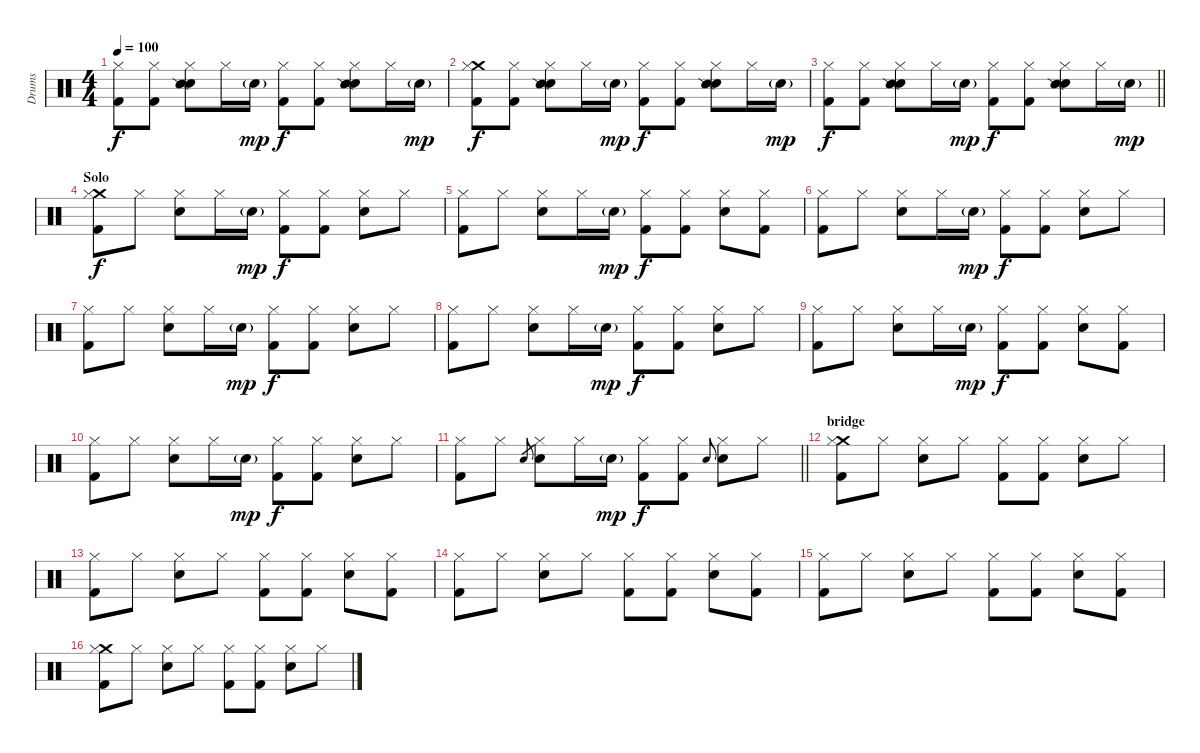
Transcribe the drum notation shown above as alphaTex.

\track ("Drums" "Drums") {instrument percussion}
\staff {score}
\articulation defaults
\ts (4 4)
\tempo 100
\clef neutral
\ks c
("Hi-Hat (closed)" "Kick (hit) 2").8{dy f} ("Hi-Hat (closed)" "Kick (hit) 2").8 ("Hi-Hat (closed)" "Electric Snare (hit)" "Snare (side stick) 2").8 "Hi-Hat (closed)".16 "Electric Snare (hit)"{g}.16{dy mp} ("Hi-Hat (closed)" "Kick (hit) 2").8{dy f} ("Hi-Hat (closed)" "Kick (hit) 2").8 ("Hi-Hat (closed)" "Electric Snare (hit)" "Snare (side stick) 2").8 "Hi-Hat (closed)".16 "Electric Snare (hit)"{g}.16{dy mp} |
("Crash medium (hit)" "Hi-Hat (closed)" "Kick (hit) 2").8{dy f} ("Hi-Hat (closed)" "Kick (hit) 2").8 ("Hi-Hat (closed)" "Electric Snare (hit)" "Snare (side stick) 2").8 "Hi-Hat (closed)".16 "Electric Snare (hit)"{g}.16{dy mp} ("Hi-Hat (closed)" "Kick (hit) 2").8{dy f} ("Hi-Hat (closed)" "Kick (hit) 2").8 ("Hi-Hat (closed)" "Electric Snare (hit)" "Snare (side stick) 2").8 "Hi-Hat (closed)".16 "Electric Snare (hit)"{g}.16{dy mp} |
\barLineRight lightlight
("Hi-Hat (closed)" "Kick (hit) 2").8{dy f} ("Hi-Hat (closed)" "Kick (hit) 2").8 ("Hi-Hat (closed)" "Electric Snare (hit)" "Snare (side stick) 2").8 "Hi-Hat (closed)".16 "Electric Snare (hit)"{g}.16{dy mp} ("Hi-Hat (closed)" "Kick (hit) 2").8{dy f} ("Hi-Hat (closed)" "Kick (hit) 2").8 ("Hi-Hat (closed)" "Electric Snare (hit)" "Snare (side stick) 2").8 "Hi-Hat (closed)".16 "Electric Snare (hit)"{g}.16{dy mp} |
\section ("" "Solo")
("Crash medium (hit)" "Kick (hit) 2" "Hi-Hat (closed)").8{dy f} "Hi-Hat (closed)".8 ("Electric Snare (hit)" "Hi-Hat (closed)").8 "Hi-Hat (closed)".16 "Electric Snare (hit)"{g}.16{dy mp} ("Kick (hit) 2" "Hi-Hat (closed)").8{dy f} ("Kick (hit) 2" "Hi-Hat (closed)").8 ("Electric Snare (hit)" "Hi-Hat (closed)").8 "Hi-Hat (closed)".8 |
("Kick (hit) 2" "Hi-Hat (closed)").8 "Hi-Hat (closed)".8 ("Electric Snare (hit)" "Hi-Hat (closed)").8 "Hi-Hat (closed)".16 "Electric Snare (hit)"{g}.16{dy mp} ("Kick (hit) 2" "Hi-Hat (closed)").8{dy f} ("Kick (hit) 2" "Hi-Hat (closed)").8 ("Electric Snare (hit)" "Hi-Hat (closed)").8 ("Kick (hit) 2" "Hi-Hat (closed)").8 |
("Kick (hit) 2" "Hi-Hat (closed)").8 "Hi-Hat (closed)".8 ("Electric Snare (hit)" "Hi-Hat (closed)").8 "Hi-Hat (closed)".16 "Electric Snare (hit)"{g}.16{dy mp} ("Kick (hit) 2" "Hi-Hat (closed)").8{dy f} ("Kick (hit) 2" "Hi-Hat (closed)").8 ("Electric Snare (hit)" "Hi-Hat (closed)").8 "Hi-Hat (closed)".8 |
("Kick (hit) 2" "Hi-Hat (closed)").8 "Hi-Hat (closed)".8 ("Electric Snare (hit)" "Hi-Hat (closed)").8 "Hi-Hat (closed)".16 "Electric Snare (hit)"{g}.16{dy mp} ("Kick (hit) 2" "Hi-Hat (closed)").8{dy f} ("Kick (hit) 2" "Hi-Hat (closed)").8 ("Electric Snare (hit)" "Hi-Hat (closed)").8 "Hi-Hat (closed)".8 |
("Kick (hit) 2" "Hi-Hat (closed)").8 "Hi-Hat (closed)".8 ("Electric Snare (hit)" "Hi-Hat (closed)").8 "Hi-Hat (closed)".16 "Electric Snare (hit)"{g}.16{dy mp} ("Kick (hit) 2" "Hi-Hat (closed)").8{dy f} ("Kick (hit) 2" "Hi-Hat (closed)").8 ("Electric Snare (hit)" "Hi-Hat (closed)").8 "Hi-Hat (closed)".8 |
("Kick (hit) 2" "Hi-Hat (closed)").8 "Hi-Hat (closed)".8 ("Electric Snare (hit)" "Hi-Hat (closed)").8 "Hi-Hat (closed)".16 "Electric Snare (hit)"{g}.16{dy mp} ("Kick (hit) 2" "Hi-Hat (closed)").8{dy f} ("Kick (hit) 2" "Hi-Hat (closed)").8 ("Electric Snare (hit)" "Hi-Hat (closed)").8 ("Kick (hit) 2" "Hi-Hat (closed)").8 |
("Kick (hit) 2" "Hi-Hat (closed)").8 "Hi-Hat (closed)".8 ("Electric Snare (hit)" "Hi-Hat (closed)").8 "Hi-Hat (closed)".16 "Electric Snare (hit)"{g}.16{dy mp} ("Kick (hit) 2" "Hi-Hat (closed)").8{dy f} ("Kick (hit) 2" "Hi-Hat (closed)").8 ("Electric Snare (hit)" "Hi-Hat (closed)").8 "Hi-Hat (closed)".8 |
\barLineRight lightlight
("Kick (hit) 2" "Hi-Hat (closed)").8 "Hi-Hat (closed)".8 "Electric Snare (hit)".8{gr} ("Electric Snare (hit)" "Hi-Hat (closed)").8 "Hi-Hat (closed)".16 "Electric Snare (hit)"{g}.16{dy mp} ("Kick (hit) 2" "Hi-Hat (closed)").8{dy f} ("Kick (hit) 2" "Hi-Hat (closed)").8 "Electric Snare (hit)".8{gr onbeat} ("Electric Snare (hit)" "Hi-Hat (closed)").8 "Hi-Hat (closed)".8 |
\section ("" "bridge")
("Crash medium (hit)" "Kick (hit) 2" "Hi-Hat (closed)").8 "Hi-Hat (closed)".8 ("Electric Snare (hit)" "Hi-Hat (closed)").8 "Hi-Hat (closed)".8 ("Kick (hit) 2" "Hi-Hat (closed)").8 ("Kick (hit) 2" "Hi-Hat (closed)").8 ("Electric Snare (hit)" "Hi-Hat (closed)").8 "Hi-Hat (closed)".8 |
("Kick (hit) 2" "Hi-Hat (closed)").8 "Hi-Hat (closed)".8 ("Electric Snare (hit)" "Hi-Hat (closed)").8 "Hi-Hat (closed)".8 ("Kick (hit) 2" "Hi-Hat (closed)").8 ("Kick (hit) 2" "Hi-Hat (closed)").8 ("Electric Snare (hit)" "Hi-Hat (closed)").8 ("Kick (hit) 2" "Hi-Hat (closed)").8 |
("Kick (hit) 2" "Hi-Hat (closed)").8 "Hi-Hat (closed)".8 ("Electric Snare (hit)" "Hi-Hat (closed)").8 "Hi-Hat (closed)".8 ("Kick (hit) 2" "Hi-Hat (closed)").8 ("Kick (hit) 2" "Hi-Hat (closed)").8 ("Electric Snare (hit)" "Hi-Hat (closed)").8 ("Kick (hit) 2" "Hi-Hat (closed)").8 |
("Kick (hit) 2" "Hi-Hat (closed)").8 "Hi-Hat (closed)".8 ("Electric Snare (hit)" "Hi-Hat (closed)").8 "Hi-Hat (closed)".8 ("Kick (hit) 2" "Hi-Hat (closed)").8 ("Kick (hit) 2" "Hi-Hat (closed)").8 ("Electric Snare (hit)" "Hi-Hat (closed)").8 ("Kick (hit) 2" "Hi-Hat (closed)").8 |
("Crash medium (hit)" "Kick (hit) 2" "Hi-Hat (closed)").8 "Hi-Hat (closed)".8 ("Electric Snare (hit)" "Hi-Hat (closed)").8 "Hi-Hat (closed)".8 ("Kick (hit) 2" "Hi-Hat (closed)").8 ("Kick (hit) 2" "Hi-Hat (closed)").8 ("Electric Snare (hit)" "Hi-Hat (closed)").8 "Hi-Hat (closed)".8
